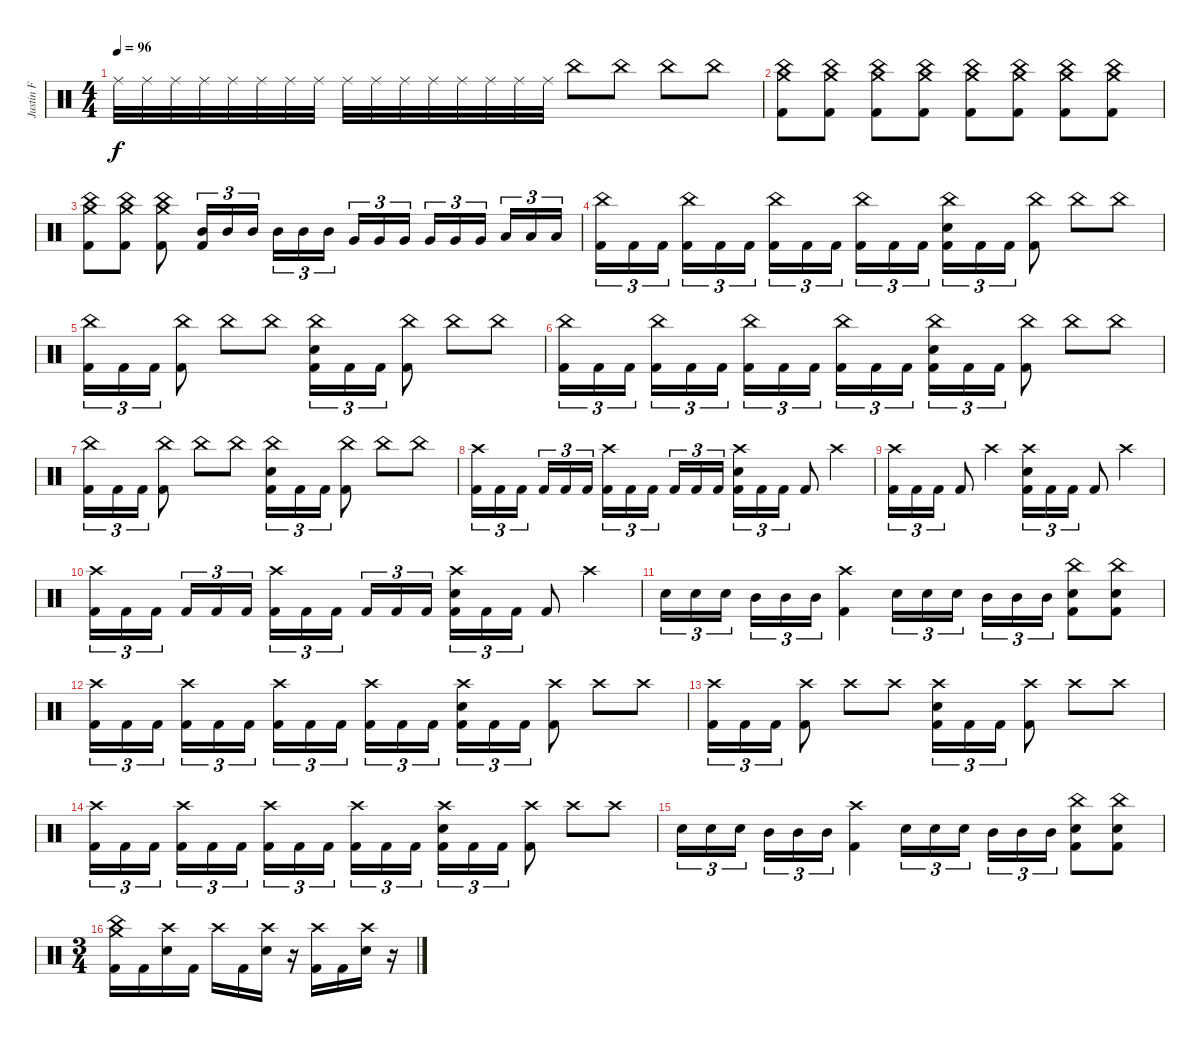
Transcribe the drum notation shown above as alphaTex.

\track ("Justin F" "Justin F") {instrument percussion}
\staff {score}
\articulation defaults
\ts (4 4)
\tempo 96
\clef neutral
\ks c "Ride (middle)".32{dy f} "Ride (middle)".32 "Ride (middle)".32 "Ride (middle)".32 "Ride (middle)".32 "Ride (middle)".32 "Ride (middle)".32 "Ride (middle)".32 "Ride (middle)".32 "Ride (middle)".32 "Ride (middle)".32 "Ride (middle)".32 "Ride (middle)".32 "Ride (middle)".32 "Ride (middle)".32 "Ride (middle)".32 "China (hit)".8 "China (hit)".8 "China (hit)".8 "China (hit)".8
|
("Kick (hit) 2" "China (hit)" "Crash medium (hit)").8 ("Kick (hit) 2" "China (hit)" "Crash medium (hit)").8 ("Kick (hit) 2" "China (hit)" "Crash medium (hit)").8 ("Kick (hit) 2" "China (hit)" "Crash medium (hit)").8 ("Kick (hit) 2" "China (hit)" "Crash medium (hit)").8 ("Kick (hit) 2" "China (hit)" "Crash medium (hit)").8 ("Kick (hit) 2" "China (hit)" "Crash medium (hit)").8 ("Kick (hit) 2" "China (hit)" "Crash medium (hit)").8 |
("Kick (hit) 2" "China (hit)" "Crash medium (hit)").8 ("Kick (hit) 2" "China (hit)" "Crash medium (hit)").8 ("Kick (hit) 2" "China (hit)" "Crash medium (hit)").8 ("Kick (hit) 2" "Mid Tom (hit)").16{tu (3 2)} "Mid Tom (hit)".16{tu (3 2)} "Mid Tom (hit)".16{tu (3 2)} "Mid Tom (hit)".16{tu (3 2)} "Mid Tom (hit)".16{tu (3 2)} "Mid Tom (hit)".16{tu (3 2) beam splitsecondary} "Very Low Tom (hit)".16{tu (3 2)} "Very Low Tom (hit)".16{tu (3 2)} "Very Low Tom (hit)".16{tu (3 2)} "Very Low Tom (hit)".16{tu (3 2)} "Very Low Tom (hit)".16{tu (3 2)} "Very Low Tom (hit)".16{tu (3 2) beam splitsecondary} "Low Floor Tom (hit)".16{tu (3 2)} "Low Floor Tom (hit)".16{tu (3 2)} "Low Floor Tom (hit)".16{tu (3 2)} |
("Kick (hit) 2" "China (hit)").16{tu (3 2)} "Kick (hit) 2".16{tu (3 2)} "Kick (hit) 2".16{tu (3 2) beam splitsecondary} ("Kick (hit) 2" "China (hit)").16{tu (3 2)} "Kick (hit) 2".16{tu (3 2)} "Kick (hit) 2".16{tu (3 2)} ("Kick (hit) 2" "China (hit)").16{tu (3 2)} "Kick (hit) 2".16{tu (3 2)} "Kick (hit) 2".16{tu (3 2) beam splitsecondary} ("Kick (hit) 2" "China (hit)").16{tu (3 2)} "Kick (hit) 2".16{tu (3 2)} "Kick (hit) 2".16{tu (3 2)} ("Kick (hit) 2" "China (hit)" "Electric Snare (hit)").16{tu (3 2)} "Kick (hit) 2".16{tu (3 2)} "Kick (hit) 2".16{tu (3 2)} ("Kick (hit) 2" "China (hit)").8 "China (hit)".8 "China (hit)".8 |
("Kick (hit) 2" "China (hit)").16{tu (3 2)} "Kick (hit) 2".16{tu (3 2)} "Kick (hit) 2".16{tu (3 2)} ("Kick (hit) 2" "China (hit)").8 "China (hit)".8 "China (hit)".8 ("Kick (hit) 2" "China (hit)" "Electric Snare (hit)").16{tu (3 2)} "Kick (hit) 2".16{tu (3 2)} "Kick (hit) 2".16{tu (3 2)} ("Kick (hit) 2" "China (hit)").8 "China (hit)".8 "China (hit)".8 |
("Kick (hit) 2" "China (hit)").16{tu (3 2)} "Kick (hit) 2".16{tu (3 2)} "Kick (hit) 2".16{tu (3 2) beam splitsecondary} ("Kick (hit) 2" "China (hit)").16{tu (3 2)} "Kick (hit) 2".16{tu (3 2)} "Kick (hit) 2".16{tu (3 2)} ("Kick (hit) 2" "China (hit)").16{tu (3 2)} "Kick (hit) 2".16{tu (3 2)} "Kick (hit) 2".16{tu (3 2) beam splitsecondary} ("Kick (hit) 2" "China (hit)").16{tu (3 2)} "Kick (hit) 2".16{tu (3 2)} "Kick (hit) 2".16{tu (3 2)} ("Kick (hit) 2" "China (hit)" "Electric Snare (hit)").16{tu (3 2)} "Kick (hit) 2".16{tu (3 2)} "Kick (hit) 2".16{tu (3 2)} ("Kick (hit) 2" "China (hit)").8 "China (hit)".8 "China (hit)".8 |
("Kick (hit) 2" "China (hit)").16{tu (3 2)} "Kick (hit) 2".16{tu (3 2)} "Kick (hit) 2".16{tu (3 2)} ("Kick (hit) 2" "China (hit)").8 "China (hit)".8 "China (hit)".8 ("Kick (hit) 2" "China (hit)" "Electric Snare (hit)").16{tu (3 2)} "Kick (hit) 2".16{tu (3 2)} "Kick (hit) 2".16{tu (3 2)} ("Kick (hit) 2" "China (hit)").8 "China (hit)".8 "China (hit)".8 |
("Kick (hit) 2" "Crash high (hit)").16{tu (3 2)} "Kick (hit) 2".16{tu (3 2)} "Kick (hit) 2".16{tu (3 2) beam splitsecondary} "Kick (hit) 2".16{tu (3 2)} "Kick (hit) 2".16{tu (3 2)} "Kick (hit) 2".16{tu (3 2)} ("Kick (hit) 2" "Crash high (hit)").16{tu (3 2)} "Kick (hit) 2".16{tu (3 2)} "Kick (hit) 2".16{tu (3 2) beam splitsecondary} "Kick (hit) 2".16{tu (3 2)} "Kick (hit) 2".16{tu (3 2)} "Kick (hit) 2".16{tu (3 2)} ("Kick (hit) 2" "Crash high (hit)" "Electric Snare (hit)").16{tu (3 2)} "Kick (hit) 2".16{tu (3 2)} "Kick (hit) 2".16{tu (3 2)} "Kick (hit) 2".8 "Crash high (hit)".4 |
("Kick (hit) 2" "Crash high (hit)").16{tu (3 2)} "Kick (hit) 2".16{tu (3 2)} "Kick (hit) 2".16{tu (3 2)} "Kick (hit) 2".8 "Crash high (hit)".4 ("Kick (hit) 2" "Crash high (hit)" "Electric Snare (hit)").16{tu (3 2)} "Kick (hit) 2".16{tu (3 2)} "Kick (hit) 2".16{tu (3 2)} "Kick (hit) 2".8 "Crash high (hit)".4 |
("Kick (hit) 2" "Crash high (hit)").16{tu (3 2)} "Kick (hit) 2".16{tu (3 2)} "Kick (hit) 2".16{tu (3 2) beam splitsecondary} "Kick (hit) 2".16{tu (3 2)} "Kick (hit) 2".16{tu (3 2)} "Kick (hit) 2".16{tu (3 2)} ("Kick (hit) 2" "Crash high (hit)").16{tu (3 2)} "Kick (hit) 2".16{tu (3 2)} "Kick (hit) 2".16{tu (3 2) beam splitsecondary} "Kick (hit) 2".16{tu (3 2)} "Kick (hit) 2".16{tu (3 2)} "Kick (hit) 2".16{tu (3 2)} ("Kick (hit) 2" "Crash high (hit)" "Electric Snare (hit)").16{tu (3 2)} "Kick (hit) 2".16{tu (3 2)} "Kick (hit) 2".16{tu (3 2)} "Kick (hit) 2".8 "Crash high (hit)".4 |
"Electric Snare (hit)".16{tu (3 2)} "Electric Snare (hit)".16{tu (3 2)} "Electric Snare (hit)".16{tu (3 2) beam splitsecondary} "Mid Tom (hit)".16{tu (3 2)} "Mid Tom (hit)".16{tu (3 2)} "Mid Tom (hit)".16{tu (3 2)} ("Kick (hit) 2" "Crash high (hit)").4 "Electric Snare (hit)".16{tu (3 2)} "Electric Snare (hit)".16{tu (3 2)} "Electric Snare (hit)".16{tu (3 2) beam splitsecondary} "Mid Tom (hit)".16{tu (3 2)} "Mid Tom (hit)".16{tu (3 2)} "Mid Tom (hit)".16{tu (3 2)} ("Kick (hit) 2" "China (hit)" "Electric Snare (hit)").8 ("Kick (hit) 2" "China (hit)" "Electric Snare (hit)").8 |
("Kick (hit) 2" "Crash high (hit)").16{tu (3 2)} "Kick (hit) 2".16{tu (3 2)} "Kick (hit) 2".16{tu (3 2) beam splitsecondary} ("Kick (hit) 2" "Crash high (hit)").16{tu (3 2)} "Kick (hit) 2".16{tu (3 2)} "Kick (hit) 2".16{tu (3 2)} ("Kick (hit) 2" "Crash high (hit)").16{tu (3 2)} "Kick (hit) 2".16{tu (3 2)} "Kick (hit) 2".16{tu (3 2) beam splitsecondary} ("Kick (hit) 2" "Crash high (hit)").16{tu (3 2)} "Kick (hit) 2".16{tu (3 2)} "Kick (hit) 2".16{tu (3 2)} ("Kick (hit) 2" "Crash high (hit)" "Electric Snare (hit)").16{tu (3 2)} "Kick (hit) 2".16{tu (3 2)} "Kick (hit) 2".16{tu (3 2)} ("Kick (hit) 2" "Crash high (hit)").8 "Crash high (hit)".8 "Crash high (hit)".8 |
("Kick (hit) 2" "Crash high (hit)").16{tu (3 2)} "Kick (hit) 2".16{tu (3 2)} "Kick (hit) 2".16{tu (3 2)} ("Kick (hit) 2" "Crash high (hit)").8 "Crash high (hit)".8 "Crash high (hit)".8 ("Kick (hit) 2" "Crash high (hit)" "Electric Snare (hit)").16{tu (3 2)} "Kick (hit) 2".16{tu (3 2)} "Kick (hit) 2".16{tu (3 2)} ("Kick (hit) 2" "Crash high (hit)").8 "Crash high (hit)".8 "Crash high (hit)".8 |
("Kick (hit) 2" "Crash high (hit)").16{tu (3 2)} "Kick (hit) 2".16{tu (3 2)} "Kick (hit) 2".16{tu (3 2) beam splitsecondary} ("Kick (hit) 2" "Crash high (hit)").16{tu (3 2)} "Kick (hit) 2".16{tu (3 2)} "Kick (hit) 2".16{tu (3 2)} ("Kick (hit) 2" "Crash high (hit)").16{tu (3 2)} "Kick (hit) 2".16{tu (3 2)} "Kick (hit) 2".16{tu (3 2) beam splitsecondary} ("Kick (hit) 2" "Crash high (hit)").16{tu (3 2)} "Kick (hit) 2".16{tu (3 2)} "Kick (hit) 2".16{tu (3 2)} ("Kick (hit) 2" "Crash high (hit)" "Electric Snare (hit)").16{tu (3 2)} "Kick (hit) 2".16{tu (3 2)} "Kick (hit) 2".16{tu (3 2)} ("Kick (hit) 2" "Crash high (hit)").8 "Crash high (hit)".8 "Crash high (hit)".8 |
"Electric Snare (hit)".16{tu (3 2)} "Electric Snare (hit)".16{tu (3 2)} "Electric Snare (hit)".16{tu (3 2) beam splitsecondary} "Mid Tom (hit)".16{tu (3 2)} "Mid Tom (hit)".16{tu (3 2)} "Mid Tom (hit)".16{tu (3 2)} ("Kick (hit) 2" "Crash high (hit)").4 "Electric Snare (hit)".16{tu (3 2)} "Electric Snare (hit)".16{tu (3 2)} "Electric Snare (hit)".16{tu (3 2) beam splitsecondary} "Mid Tom (hit)".16{tu (3 2)} "Mid Tom (hit)".16{tu (3 2)} "Mid Tom (hit)".16{tu (3 2)} ("Kick (hit) 2" "China (hit)" "Electric Snare (hit)").8 ("Kick (hit) 2" "China (hit)" "Electric Snare (hit)").8 |
\ts (3 4)
("Kick (hit) 2" "Crash medium (hit)" "China (hit)").16 "Kick (hit) 2".16 ("Crash high (hit)" "Electric Snare (hit)").16 "Kick (hit) 2".16 "Crash high (hit)".16 "Kick (hit) 2".16 ("Crash high (hit)" "Electric Snare (hit)").16 r.16 ("Kick (hit) 2" "Crash high (hit)").16 "Kick (hit) 2".16 ("Crash high (hit)" "Electric Snare (hit)").16 r.16
